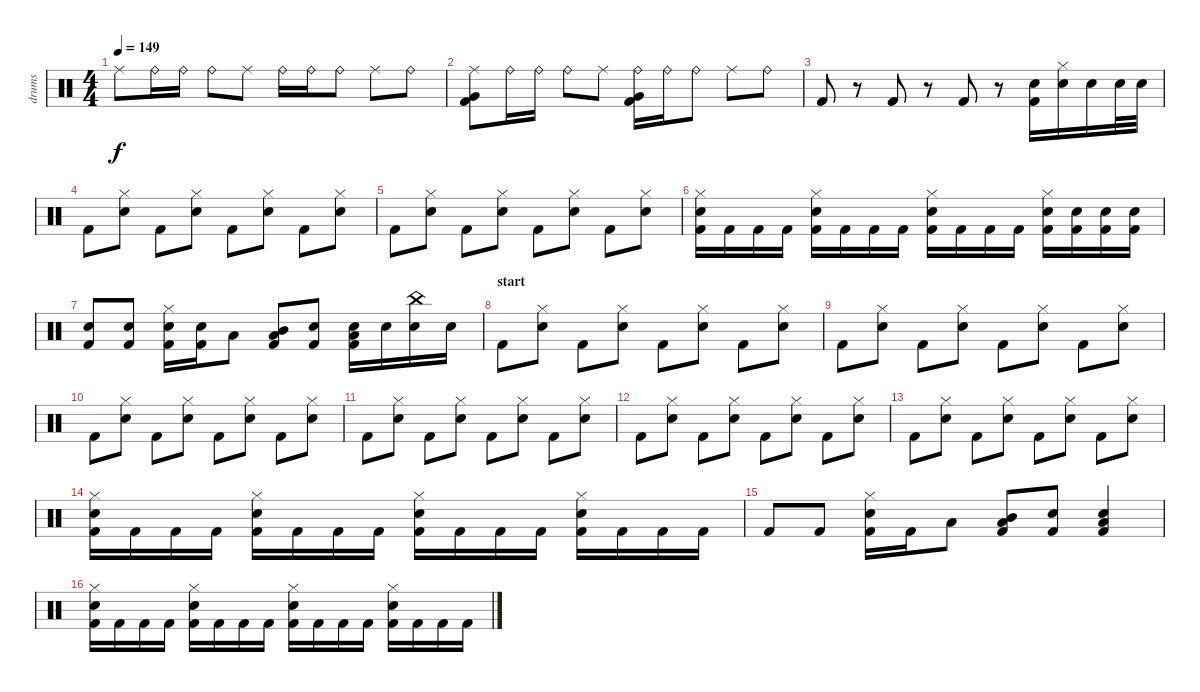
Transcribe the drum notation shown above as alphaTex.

\track ("drums" "drums") {instrument percussion}
\staff {score}
\articulation defaults
\ts (4 4)
\tempo 149
\clef neutral
\ks c "Ride (middle)".8{dy f} "Ride (bell)".16 "Ride (bell)".16 "Ride (bell)".8 "Ride (middle)".8 "Ride (bell)".16 "Ride (bell)".16 "Ride (bell)".8 "Ride (middle)".8 "Ride (bell)".8
|
("Kick (hit) 2" "Very Low Tom (hit)" "Ride (middle)").8 "Ride (bell)".16 "Ride (bell)".16 "Ride (bell)".8 "Ride (middle)".8 ("Kick (hit) 2" "Very Low Tom (hit)" "Ride (bell)").16 "Ride (bell)".16 "Ride (bell)".8 "Ride (middle)".8 "Ride (bell)".8 |
"Kick (hit) 2".8 r.8 "Kick (hit) 2".8 r.8 "Kick (hit) 2".8 r.8 ("Kick (hit) 2" "Electric Snare (hit)").16 ("Electric Snare (hit)" "Hi-Hat (closed)").16 "Electric Snare (hit)".16 "Electric Snare (hit)".32 "Electric Snare (hit)".32 |
"Kick (hit) 2".8 ("Electric Snare (hit)" "Hi-Hat (closed)").8 "Kick (hit) 2".8 ("Electric Snare (hit)" "Hi-Hat (closed)").8 "Kick (hit) 2".8 ("Electric Snare (hit)" "Hi-Hat (closed)").8 "Kick (hit) 2".8 ("Electric Snare (hit)" "Hi-Hat (closed)").8 |
"Kick (hit) 2".8 ("Electric Snare (hit)" "Hi-Hat (closed)").8 "Kick (hit) 2".8 ("Electric Snare (hit)" "Hi-Hat (closed)").8 "Kick (hit) 2".8 ("Electric Snare (hit)" "Hi-Hat (closed)").8 "Kick (hit) 2".8 ("Electric Snare (hit)" "Hi-Hat (closed)").8 |
("Kick (hit) 2" "Electric Snare (hit)" "Hi-Hat (closed)").16 "Kick (hit) 2".16 "Kick (hit) 2".16 "Kick (hit) 2".16 ("Kick (hit) 2" "Electric Snare (hit)" "Hi-Hat (closed)").16 "Kick (hit) 2".16 "Kick (hit) 2".16 "Kick (hit) 2".16 ("Kick (hit) 2" "Electric Snare (hit)" "Hi-Hat (closed)").16 "Kick (hit) 2".16 "Kick (hit) 2".16 "Kick (hit) 2".16 ("Kick (hit) 2" "Electric Snare (hit)" "Hi-Hat (closed)").16 ("Kick (hit) 2" "Electric Snare (hit)").16 ("Kick (hit) 2" "Electric Snare (hit)").16 ("Kick (hit) 2" "Electric Snare (hit)").16 |
("Kick (hit) 2" "Electric Snare (hit)").8 ("Kick (hit) 2" "Electric Snare (hit)").8 ("Kick (hit) 2" "Electric Snare (hit)" "Hi-Hat (closed)").16 ("Kick (hit) 2" "Electric Snare (hit)").16 "Low Tom (hit)".8 ("Kick (hit) 2" "Low Tom (hit)" "Mid Tom (hit)").8 ("Kick (hit) 2" "Electric Snare (hit)").8 ("Kick (hit) 2" "Electric Snare (hit)" "Low Tom (hit)").16 "Electric Snare (hit)".16 ("Electric Snare (hit)" "China (hit)").16 "Electric Snare (hit)".16 |
\section ("" "start")
"Kick (hit) 2".8 ("Electric Snare (hit)" "Hi-Hat (closed)").8 "Kick (hit) 2".8 ("Electric Snare (hit)" "Hi-Hat (closed)").8 "Kick (hit) 2".8 ("Electric Snare (hit)" "Hi-Hat (closed)").8 "Kick (hit) 2".8 ("Electric Snare (hit)" "Hi-Hat (closed)").8 |
"Kick (hit) 2".8 ("Electric Snare (hit)" "Hi-Hat (closed)").8 "Kick (hit) 2".8 ("Electric Snare (hit)" "Hi-Hat (closed)").8 "Kick (hit) 2".8 ("Electric Snare (hit)" "Hi-Hat (closed)").8 "Kick (hit) 2".8 ("Electric Snare (hit)" "Hi-Hat (closed)").8 |
"Kick (hit) 2".8 ("Electric Snare (hit)" "Hi-Hat (closed)").8 "Kick (hit) 2".8 ("Electric Snare (hit)" "Hi-Hat (closed)").8 "Kick (hit) 2".8 ("Electric Snare (hit)" "Hi-Hat (closed)").8 "Kick (hit) 2".8 ("Electric Snare (hit)" "Hi-Hat (closed)").8 |
"Kick (hit) 2".8 ("Electric Snare (hit)" "Hi-Hat (closed)").8 "Kick (hit) 2".8 ("Electric Snare (hit)" "Hi-Hat (closed)").8 "Kick (hit) 2".8 ("Electric Snare (hit)" "Hi-Hat (closed)").8 "Kick (hit) 2".8 ("Electric Snare (hit)" "Hi-Hat (closed)").8 |
"Kick (hit) 2".8 ("Electric Snare (hit)" "Hi-Hat (closed)").8 "Kick (hit) 2".8 ("Electric Snare (hit)" "Hi-Hat (closed)").8 "Kick (hit) 2".8 ("Electric Snare (hit)" "Hi-Hat (closed)").8 "Kick (hit) 2".8 ("Electric Snare (hit)" "Hi-Hat (closed)").8 |
"Kick (hit) 2".8 ("Electric Snare (hit)" "Hi-Hat (closed)").8 "Kick (hit) 2".8 ("Electric Snare (hit)" "Hi-Hat (closed)").8 "Kick (hit) 2".8 ("Electric Snare (hit)" "Hi-Hat (closed)").8 "Kick (hit) 2".8 ("Electric Snare (hit)" "Hi-Hat (closed)").8 |
("Kick (hit) 2" "Electric Snare (hit)" "Hi-Hat (closed)").16 "Kick (hit) 2".16 "Kick (hit) 2".16 "Kick (hit) 2".16 ("Kick (hit) 2" "Electric Snare (hit)" "Hi-Hat (closed)").16 "Kick (hit) 2".16 "Kick (hit) 2".16 "Kick (hit) 2".16 ("Kick (hit) 2" "Electric Snare (hit)" "Hi-Hat (closed)").16 "Kick (hit) 2".16 "Kick (hit) 2".16 "Kick (hit) 2".16 ("Kick (hit) 2" "Electric Snare (hit)" "Hi-Hat (closed)").16 "Kick (hit) 2".16 "Kick (hit) 2".16 "Kick (hit) 2".16 |
"Kick (hit) 2".8 "Kick (hit) 2".8 ("Kick (hit) 2" "Electric Snare (hit)" "Hi-Hat (closed)").16 "Kick (hit) 2".16 "Low Tom (hit)".8 ("Kick (hit) 2" "Low Tom (hit)" "Mid Tom (hit)").8 ("Kick (hit) 2" "Electric Snare (hit)").8 ("Kick (hit) 2" "Electric Snare (hit)" "Low Tom (hit)").4 |
("Kick (hit) 2" "Electric Snare (hit)" "Hi-Hat (closed)").16 "Kick (hit) 2".16 "Kick (hit) 2".16 "Kick (hit) 2".16 ("Kick (hit) 2" "Electric Snare (hit)" "Hi-Hat (closed)").16 "Kick (hit) 2".16 "Kick (hit) 2".16 "Kick (hit) 2".16 ("Kick (hit) 2" "Electric Snare (hit)" "Hi-Hat (closed)").16 "Kick (hit) 2".16 "Kick (hit) 2".16 "Kick (hit) 2".16 ("Kick (hit) 2" "Electric Snare (hit)" "Hi-Hat (closed)").16 "Kick (hit) 2".16 "Kick (hit) 2".16 "Kick (hit) 2".16
